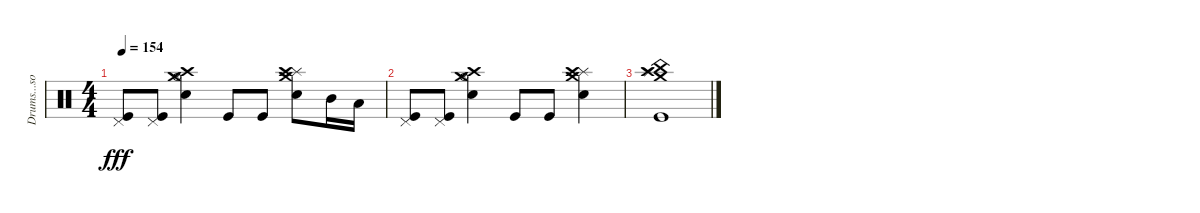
\track ("Drums...song tabbed by ae" "Drums...so") {instrument percussion}
\staff {score}
\articulation defaults
\ts (4 4)
\tempo 154
\clef neutral
\ks c
("Pedal Hi-Hat (hit)" "Kick (hit)").8{dy fff} ("Pedal Hi-Hat (hit)" "Kick (hit)").8 ("Crash high (hit)" "Crash medium (hit)" "Hi-Hat (open)" "Snare (hit) 2").4 "Kick (hit)".8 "Kick (hit)".8 ("Crash medium (hit)" "Splash (hit)" "Crash high (hit)" "Snare (hit) 2").8 "Mid Tom (hit)".16 "Low Tom (hit)".16 |
("Pedal Hi-Hat (hit)" "Kick (hit)").8 ("Pedal Hi-Hat (hit)" "Kick (hit)").8 ("Crash high (hit)" "Crash medium (hit)" "Hi-Hat (open)" "Snare (hit) 2").4 "Kick (hit)".8 "Kick (hit)".8 ("Crash medium (hit)" "Splash (hit)" "Crash high (hit)" "Snare (hit) 2").4 |
("Crash medium (hit)" "Splash (hit)" "Crash high (hit)" "China (hit)" "Kick (hit)").1
